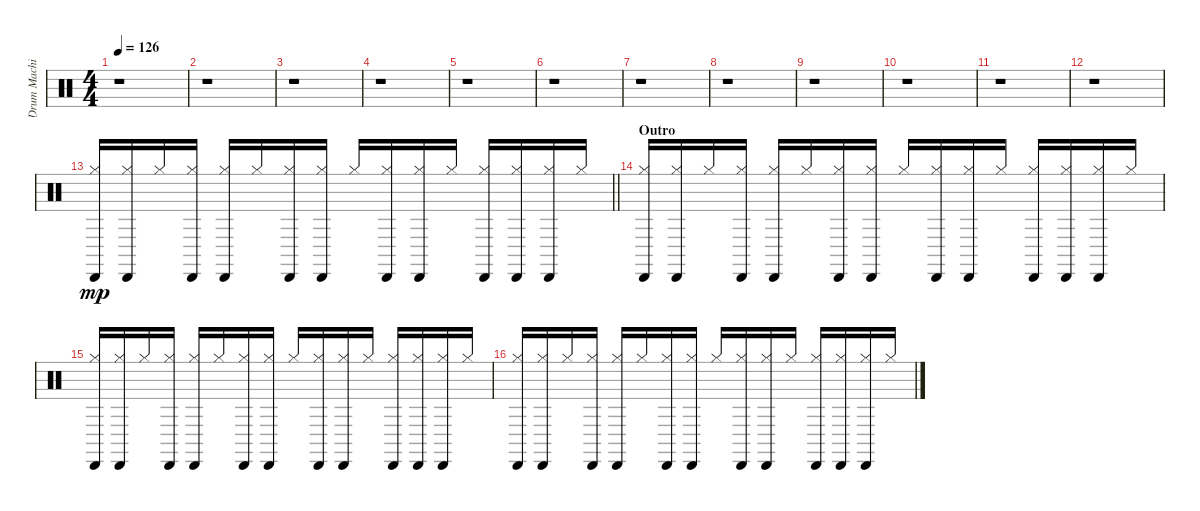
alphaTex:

\track ("Drum Machine" "Drum Machi") {instrument percussion}
\staff {score}
\articulation defaults
\ts (4 4)
\tempo 126
\clef neutral
\ks c
r.1{dy mp} |
r.1 |
r.1 |
r.1 |
r.1 |
r.1 |
r.1 |
r.1 |
r.1 |
r.1 |
r.1 |
r.1 |
\barLineRight lightlight
("Cabasa (hit)" "Hi-Hat (closed)").16 ("Cabasa (hit)" "Hi-Hat (closed)").16 "Hi-Hat (closed)".16 ("Cabasa (hit)" "Hi-Hat (closed)").16 ("Cabasa (hit)" "Hi-Hat (closed)").16 "Hi-Hat (closed)".16 ("Cabasa (hit)" "Hi-Hat (closed)").16 ("Cabasa (hit)" "Hi-Hat (closed)").16 "Hi-Hat (closed)".16 ("Cabasa (hit)" "Hi-Hat (closed)").16 ("Cabasa (hit)" "Hi-Hat (closed)").16 "Hi-Hat (closed)".16 ("Cabasa (hit)" "Hi-Hat (closed)").16 ("Cabasa (hit)" "Hi-Hat (closed)").16 ("Cabasa (hit)" "Hi-Hat (closed)").16 "Hi-Hat (closed)".16 |
\section ("" "Outro")
("Cabasa (hit)" "Hi-Hat (closed)").16 ("Cabasa (hit)" "Hi-Hat (closed)").16 "Hi-Hat (closed)".16 ("Cabasa (hit)" "Hi-Hat (closed)").16 ("Cabasa (hit)" "Hi-Hat (closed)").16 "Hi-Hat (closed)".16 ("Cabasa (hit)" "Hi-Hat (closed)").16 ("Cabasa (hit)" "Hi-Hat (closed)").16 "Hi-Hat (closed)".16 ("Cabasa (hit)" "Hi-Hat (closed)").16 ("Cabasa (hit)" "Hi-Hat (closed)").16 "Hi-Hat (closed)".16 ("Cabasa (hit)" "Hi-Hat (closed)").16 ("Cabasa (hit)" "Hi-Hat (closed)").16 ("Cabasa (hit)" "Hi-Hat (closed)").16 "Hi-Hat (closed)".16 |
("Cabasa (hit)" "Hi-Hat (closed)").16 ("Cabasa (hit)" "Hi-Hat (closed)").16 "Hi-Hat (closed)".16 ("Cabasa (hit)" "Hi-Hat (closed)").16 ("Cabasa (hit)" "Hi-Hat (closed)").16 "Hi-Hat (closed)".16 ("Cabasa (hit)" "Hi-Hat (closed)").16 ("Cabasa (hit)" "Hi-Hat (closed)").16 "Hi-Hat (closed)".16 ("Cabasa (hit)" "Hi-Hat (closed)").16 ("Cabasa (hit)" "Hi-Hat (closed)").16 "Hi-Hat (closed)".16 ("Cabasa (hit)" "Hi-Hat (closed)").16 ("Cabasa (hit)" "Hi-Hat (closed)").16 ("Cabasa (hit)" "Hi-Hat (closed)").16 "Hi-Hat (closed)".16 |
("Cabasa (hit)" "Hi-Hat (closed)").16 ("Cabasa (hit)" "Hi-Hat (closed)").16 "Hi-Hat (closed)".16 ("Cabasa (hit)" "Hi-Hat (closed)").16 ("Cabasa (hit)" "Hi-Hat (closed)").16 "Hi-Hat (closed)".16 ("Cabasa (hit)" "Hi-Hat (closed)").16 ("Cabasa (hit)" "Hi-Hat (closed)").16 "Hi-Hat (closed)".16 ("Cabasa (hit)" "Hi-Hat (closed)").16 ("Cabasa (hit)" "Hi-Hat (closed)").16 "Hi-Hat (closed)".16 ("Cabasa (hit)" "Hi-Hat (closed)").16 ("Cabasa (hit)" "Hi-Hat (closed)").16 ("Cabasa (hit)" "Hi-Hat (closed)").16 "Hi-Hat (closed)".16
